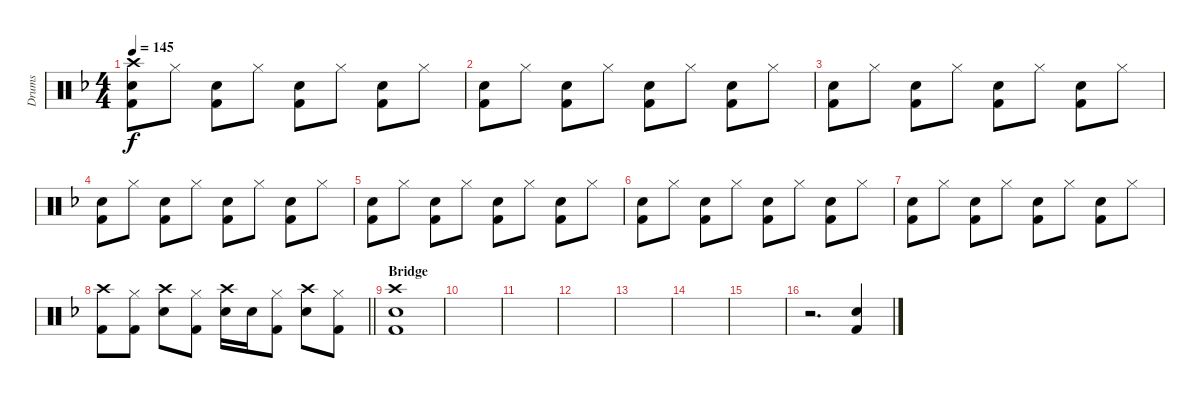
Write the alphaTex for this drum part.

\track ("Drums" "Drums") {instrument percussion}
\staff {score}
\articulation defaults
\ts (4 4)
\tempo 145
\clef neutral
\ks f
("Kick (hit) 2" "Snare (hit) 2" "Crash high (hit)").8{dy f} "Hi-Hat (closed)".8 ("Kick (hit) 2" "Snare (hit) 2").8 "Hi-Hat (closed)".8 ("Kick (hit) 2" "Snare (hit) 2").8 "Hi-Hat (closed)".8 ("Kick (hit) 2" "Snare (hit) 2").8 "Hi-Hat (closed)".8 |
("Kick (hit) 2" "Snare (hit) 2").8 "Hi-Hat (closed)".8 ("Kick (hit) 2" "Snare (hit) 2").8 "Hi-Hat (closed)".8 ("Kick (hit) 2" "Snare (hit) 2").8 "Hi-Hat (closed)".8 ("Kick (hit) 2" "Snare (hit) 2").8 "Hi-Hat (closed)".8 |
("Kick (hit) 2" "Snare (hit) 2").8 "Hi-Hat (closed)".8 ("Kick (hit) 2" "Snare (hit) 2").8 "Hi-Hat (closed)".8 ("Kick (hit) 2" "Snare (hit) 2").8 "Hi-Hat (closed)".8 ("Kick (hit) 2" "Snare (hit) 2").8 "Hi-Hat (closed)".8 |
("Kick (hit) 2" "Snare (hit) 2").8 "Hi-Hat (closed)".8 ("Kick (hit) 2" "Snare (hit) 2").8 "Hi-Hat (closed)".8 ("Kick (hit) 2" "Snare (hit) 2").8 "Hi-Hat (closed)".8 ("Kick (hit) 2" "Snare (hit) 2").8 "Hi-Hat (closed)".8 |
("Kick (hit) 2" "Snare (hit) 2").8 "Hi-Hat (closed)".8 ("Kick (hit) 2" "Snare (hit) 2").8 "Hi-Hat (closed)".8 ("Kick (hit) 2" "Snare (hit) 2").8 "Hi-Hat (closed)".8 ("Kick (hit) 2" "Snare (hit) 2").8 "Hi-Hat (closed)".8 |
("Kick (hit) 2" "Snare (hit) 2").8 "Hi-Hat (closed)".8 ("Kick (hit) 2" "Snare (hit) 2").8 "Hi-Hat (closed)".8 ("Kick (hit) 2" "Snare (hit) 2").8 "Hi-Hat (closed)".8 ("Kick (hit) 2" "Snare (hit) 2").8 "Hi-Hat (closed)".8 |
("Kick (hit) 2" "Snare (hit) 2").8 "Hi-Hat (closed)".8 ("Kick (hit) 2" "Snare (hit) 2").8 "Hi-Hat (closed)".8 ("Kick (hit) 2" "Snare (hit) 2").8 "Hi-Hat (closed)".8 ("Kick (hit) 2" "Snare (hit) 2").8 "Hi-Hat (closed)".8 |
\barLineRight lightlight
("Kick (hit) 2" "Crash high (hit)").8 ("Hi-Hat (closed)" "Kick (hit) 2").8 ("Snare (hit) 2" "Crash high (hit)").8 ("Hi-Hat (closed)" "Kick (hit) 2").8 ("Crash high (hit)" "Snare (hit) 2").16 "Snare (hit) 2".16 ("Kick (hit) 2" "Hi-Hat (closed)").8 ("Snare (hit) 2" "Crash high (hit)").8 ("Kick (hit) 2" "Hi-Hat (closed)").8 |
\section ("" "Bridge")
("Kick (hit) 2" "Snare (hit) 2" "Crash high (hit)").1 |
|
|
|
|
|
|
r.2{d} ("Kick (hit) 2" "Snare (hit) 2").4
